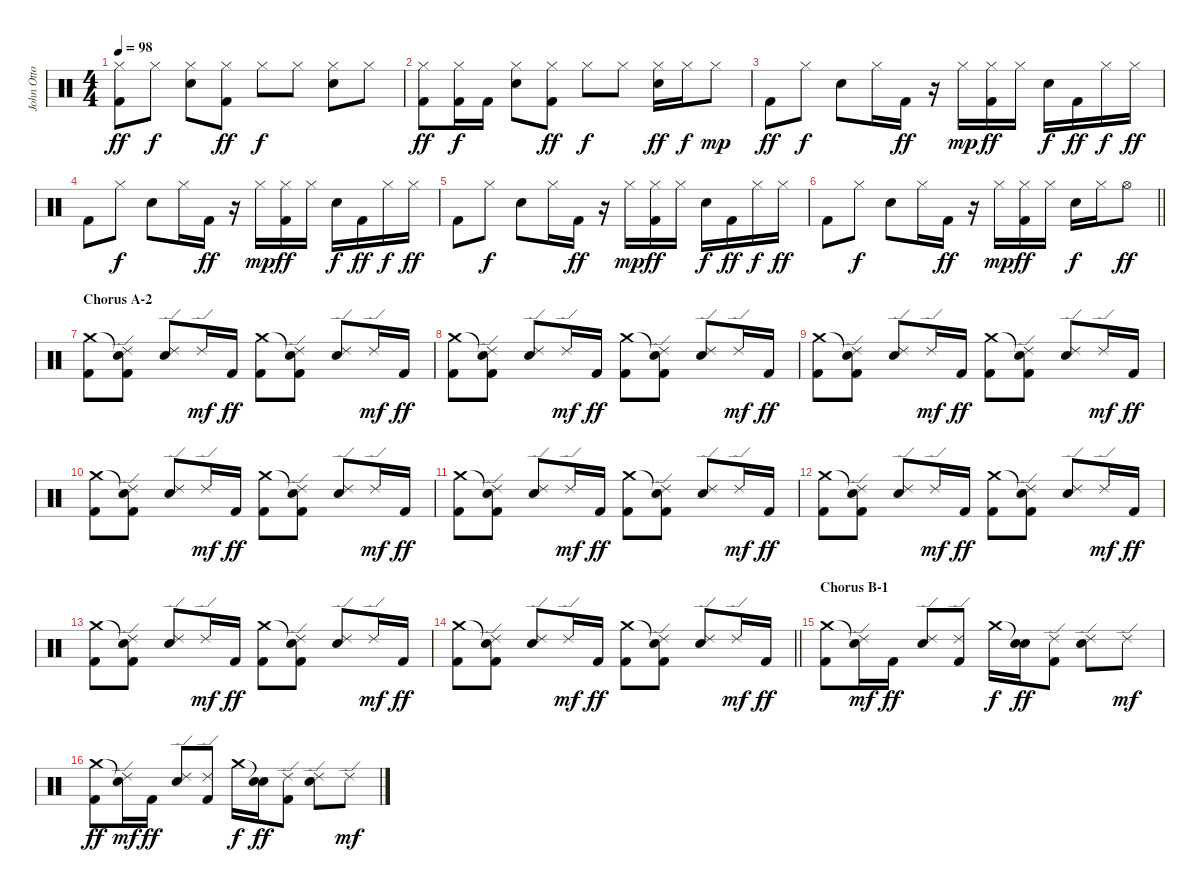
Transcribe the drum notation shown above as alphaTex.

\track ("John Otto (Drums)" "John Otto ") {instrument percussion}
\staff {score}
\articulation defaults
\ts (4 4)
\tempo 98
\clef neutral
\ks c
("Hi-Hat (closed)" "Kick (hit) 2").8{dy ff} "Hi-Hat (closed)".8{dy f} ("Hi-Hat (closed)" "Snare (hit) 2").8 ("Hi-Hat (closed)" "Kick (hit) 2").8{dy ff} "Hi-Hat (closed)".8{dy f} "Hi-Hat (closed)".8 ("Hi-Hat (closed)" "Snare (hit) 2").8 "Hi-Hat (closed)".8 |
("Hi-Hat (closed)" "Kick (hit) 2").8{dy ff} ("Hi-Hat (closed)" "Kick (hit) 2").16{dy f} "Kick (hit) 2".16 ("Hi-Hat (closed)" "Snare (hit) 2").8 ("Hi-Hat (closed)" "Kick (hit) 2").8{dy ff} "Hi-Hat (closed)".8{dy f} "Hi-Hat (closed)".8 ("Hi-Hat (closed)" "Snare (hit) 2").16{dy ff} "Hi-Hat (closed)".16{dy f} "Hi-Hat (closed)".8{dy mp} |
"Kick (hit) 2".8{dy ff} "Hi-Hat (closed)".8{dy f} "Snare (hit) 2".8 "Hi-Hat (closed)".16 "Kick (hit) 2".16{dy ff} r.16 "Hi-Hat (closed)".16{dy mp} ("Hi-Hat (closed)" "Kick (hit) 2").16{dy ff} "Hi-Hat (closed)".16 "Snare (hit) 2".16{dy f} "Kick (hit) 2".16{dy ff} "Hi-Hat (closed)".16{dy f} "Hi-Hat (closed)".16{dy ff} |
"Kick (hit) 2".8 "Hi-Hat (closed)".8{dy f} "Snare (hit) 2".8 "Hi-Hat (closed)".16 "Kick (hit) 2".16{dy ff} r.16 "Hi-Hat (closed)".16{dy mp} ("Hi-Hat (closed)" "Kick (hit) 2").16{dy ff} "Hi-Hat (closed)".16 "Snare (hit) 2".16{dy f} "Kick (hit) 2".16{dy ff} "Hi-Hat (closed)".16{dy f} "Hi-Hat (closed)".16{dy ff} |
"Kick (hit) 2".8 "Hi-Hat (closed)".8{dy f} "Snare (hit) 2".8 "Hi-Hat (closed)".16 "Kick (hit) 2".16{dy ff} r.16 "Hi-Hat (closed)".16{dy mp} ("Hi-Hat (closed)" "Kick (hit) 2").16{dy ff} "Hi-Hat (closed)".16 "Snare (hit) 2".16{dy f} "Kick (hit) 2".16{dy ff} "Hi-Hat (closed)".16{dy f} "Hi-Hat (closed)".16{dy ff} |
\barLineRight lightlight "Kick (hit) 2".8 "Hi-Hat (closed)".8{dy f} "Snare (hit) 2".8 "Hi-Hat (closed)".16 "Kick (hit) 2".16{dy ff}
r.16 "Hi-Hat (closed)".16{dy mp} ("Hi-Hat (closed)" "Kick (hit) 2").16{dy ff} "Hi-Hat (closed)".16 "Snare (hit) 2".16{dy f} "Hi-Hat (closed)".16 "Hi-Hat (open)".8{dy ff} |
\section ("" "Chorus A-2")
("Crash medium (hit)" "Kick (hit) 2").8 ("Snare (hit)"{t} "Ride (edge) 2" "Kick (hit) 2").8 ("Ride (edge) 2" "Snare (hit) 2").8 "Ride (edge) 2".16{dy mf} "Kick (hit) 2".16{dy ff} ("Crash medium (hit)" "Kick (hit) 2").8 ("Snare (hit)"{t} "Ride (edge) 2" "Kick (hit) 2").8 ("Ride (edge) 2" "Snare (hit) 2").8 "Ride (edge) 2".16{dy mf} "Kick (hit) 2".16{dy ff} |
("Crash medium (hit)" "Kick (hit) 2").8 ("Snare (hit)"{t} "Ride (edge) 2" "Kick (hit) 2").8 ("Ride (edge) 2" "Snare (hit) 2").8 "Ride (edge) 2".16{dy mf} "Kick (hit) 2".16{dy ff} ("Crash medium (hit)" "Kick (hit) 2").8 ("Snare (hit)"{t} "Ride (edge) 2" "Kick (hit) 2").8 ("Ride (edge) 2" "Snare (hit) 2").8 "Ride (edge) 2".16{dy mf} "Kick (hit) 2".16{dy ff} |
("Crash medium (hit)" "Kick (hit) 2").8 ("Snare (hit)"{t} "Ride (edge) 2" "Kick (hit) 2").8 ("Ride (edge) 2" "Snare (hit) 2").8 "Ride (edge) 2".16{dy mf} "Kick (hit) 2".16{dy ff} ("Crash medium (hit)" "Kick (hit) 2").8 ("Snare (hit)"{t} "Ride (edge) 2" "Kick (hit) 2").8 ("Ride (edge) 2" "Snare (hit) 2").8 "Ride (edge) 2".16{dy mf} "Kick (hit) 2".16{dy ff} |
("Crash medium (hit)" "Kick (hit) 2").8 ("Snare (hit)"{t} "Ride (edge) 2" "Kick (hit) 2").8 ("Ride (edge) 2" "Snare (hit) 2").8 "Ride (edge) 2".16{dy mf} "Kick (hit) 2".16{dy ff} ("Crash medium (hit)" "Kick (hit) 2").8 ("Snare (hit)"{t} "Ride (edge) 2" "Kick (hit) 2").8 ("Ride (edge) 2" "Snare (hit) 2").8 "Ride (edge) 2".16{dy mf} "Kick (hit) 2".16{dy ff} |
("Crash medium (hit)" "Kick (hit) 2").8 ("Snare (hit)"{t} "Ride (edge) 2" "Kick (hit) 2").8 ("Ride (edge) 2" "Snare (hit) 2").8 "Ride (edge) 2".16{dy mf} "Kick (hit) 2".16{dy ff} ("Crash medium (hit)" "Kick (hit) 2").8 ("Snare (hit)"{t} "Ride (edge) 2" "Kick (hit) 2").8 ("Ride (edge) 2" "Snare (hit) 2").8 "Ride (edge) 2".16{dy mf} "Kick (hit) 2".16{dy ff} |
("Crash medium (hit)" "Kick (hit) 2").8 ("Snare (hit)"{t} "Ride (edge) 2" "Kick (hit) 2").8 ("Ride (edge) 2" "Snare (hit) 2").8 "Ride (edge) 2".16{dy mf} "Kick (hit) 2".16{dy ff} ("Crash medium (hit)" "Kick (hit) 2").8 ("Snare (hit)"{t} "Ride (edge) 2" "Kick (hit) 2").8 ("Ride (edge) 2" "Snare (hit) 2").8 "Ride (edge) 2".16{dy mf} "Kick (hit) 2".16{dy ff} |
("Crash medium (hit)" "Kick (hit) 2").8 ("Snare (hit)"{t} "Ride (edge) 2" "Kick (hit) 2").8 ("Ride (edge) 2" "Snare (hit) 2").8 "Ride (edge) 2".16{dy mf} "Kick (hit) 2".16{dy ff} ("Crash medium (hit)" "Kick (hit) 2").8 ("Snare (hit)"{t} "Ride (edge) 2" "Kick (hit) 2").8 ("Ride (edge) 2" "Snare (hit) 2").8 "Ride (edge) 2".16{dy mf} "Kick (hit) 2".16{dy ff} |
\barLineRight lightlight
("Crash medium (hit)" "Kick (hit) 2").8 ("Snare (hit)"{t} "Ride (edge) 2" "Kick (hit) 2").8 ("Ride (edge) 2" "Snare (hit) 2").8 "Ride (edge) 2".16{dy mf} "Kick (hit) 2".16{dy ff} ("Crash medium (hit)" "Kick (hit) 2").8 ("Snare (hit)"{t} "Ride (edge) 2" "Kick (hit) 2").8 ("Ride (edge) 2" "Snare (hit) 2").8 "Ride (edge) 2".16{dy mf} "Kick (hit) 2".16{dy ff} |
\section ("" "Chorus B-1")
("Crash medium (hit)" "Kick (hit) 2").8 ("Snare (hit)"{t} "Ride (edge) 2").16{dy mf} "Kick (hit) 2".16{dy ff} ("Ride (edge) 2" "Snare (hit) 2").8 ("Ride (edge) 2" "Kick (hit) 2").8 "Crash medium (hit)".16{dy f} ("Snare (hit)"{t} "Snare (hit) 2").16{dy ff} ("Ride (edge) 2" "Kick (hit) 2").8 ("Ride (edge) 2" "Snare (hit) 2").8 "Ride (edge) 2".8{dy mf} |
("Crash medium (hit)" "Kick (hit) 2").8{dy ff} ("Snare (hit)"{t} "Ride (edge) 2").16{dy mf} "Kick (hit) 2".16{dy ff} ("Ride (edge) 2" "Snare (hit) 2").8 ("Ride (edge) 2" "Kick (hit) 2").8 "Crash medium (hit)".16{dy f} ("Snare (hit)"{t} "Snare (hit) 2").16{dy ff} ("Ride (edge) 2" "Kick (hit) 2").8 ("Ride (edge) 2" "Snare (hit) 2").8 "Ride (edge) 2".8{dy mf}
